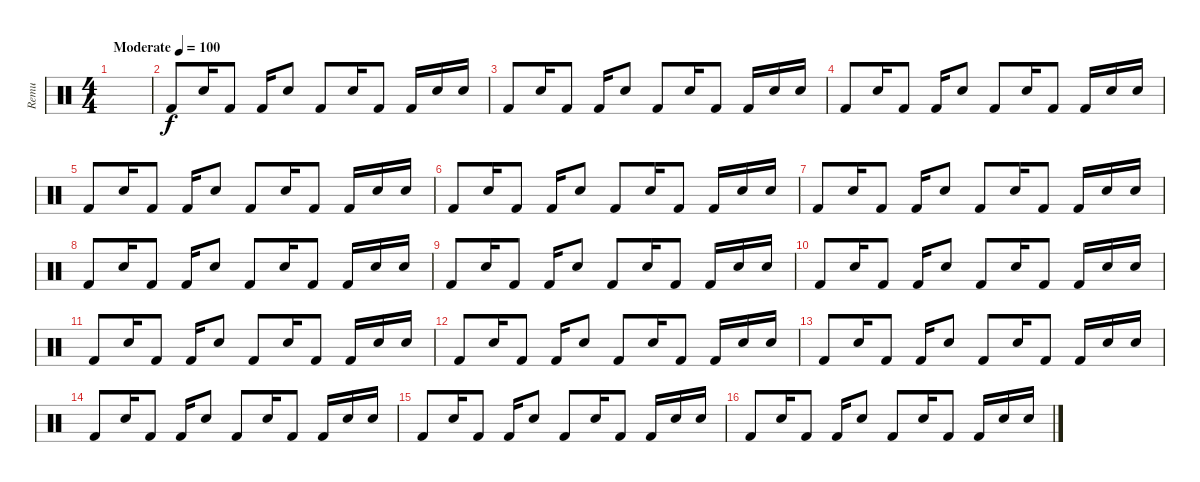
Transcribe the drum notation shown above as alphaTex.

\track ("Remu" "Remu") {instrument percussion}
\staff {score}
\articulation defaults
\ts (4 4)
\tempo (100 "Moderate")
\clef neutral
\ks c
|
"Kick (hit) 2".8 "Snare (hit) 2".16 "Kick (hit) 2".8 "Kick (hit) 2".16 "Snare (hit) 2".8 "Kick (hit) 2".8 "Snare (hit) 2".16 "Kick (hit) 2".8 "Kick (hit) 2".16 "Snare (hit) 2".16 "Snare (hit) 2".16 |
"Kick (hit) 2".8 "Snare (hit) 2".16 "Kick (hit) 2".8 "Kick (hit) 2".16 "Snare (hit) 2".8 "Kick (hit) 2".8 "Snare (hit) 2".16 "Kick (hit) 2".8 "Kick (hit) 2".16 "Snare (hit) 2".16 "Snare (hit) 2".16 |
"Kick (hit) 2".8 "Snare (hit) 2".16 "Kick (hit) 2".8 "Kick (hit) 2".16 "Snare (hit) 2".8 "Kick (hit) 2".8 "Snare (hit) 2".16 "Kick (hit) 2".8 "Kick (hit) 2".16 "Snare (hit) 2".16 "Snare (hit) 2".16 |
"Kick (hit) 2".8 "Snare (hit) 2".16 "Kick (hit) 2".8 "Kick (hit) 2".16 "Snare (hit) 2".8 "Kick (hit) 2".8 "Snare (hit) 2".16 "Kick (hit) 2".8 "Kick (hit) 2".16 "Snare (hit) 2".16 "Snare (hit) 2".16 |
"Kick (hit) 2".8 "Snare (hit) 2".16 "Kick (hit) 2".8 "Kick (hit) 2".16 "Snare (hit) 2".8 "Kick (hit) 2".8 "Snare (hit) 2".16 "Kick (hit) 2".8 "Kick (hit) 2".16 "Snare (hit) 2".16 "Snare (hit) 2".16 |
"Kick (hit) 2".8 "Snare (hit) 2".16 "Kick (hit) 2".8 "Kick (hit) 2".16 "Snare (hit) 2".8 "Kick (hit) 2".8 "Snare (hit) 2".16 "Kick (hit) 2".8 "Kick (hit) 2".16 "Snare (hit) 2".16 "Snare (hit) 2".16 |
"Kick (hit) 2".8 "Snare (hit) 2".16 "Kick (hit) 2".8 "Kick (hit) 2".16 "Snare (hit) 2".8 "Kick (hit) 2".8 "Snare (hit) 2".16 "Kick (hit) 2".8 "Kick (hit) 2".16 "Snare (hit) 2".16 "Snare (hit) 2".16 |
"Kick (hit) 2".8 "Snare (hit) 2".16 "Kick (hit) 2".8 "Kick (hit) 2".16 "Snare (hit) 2".8 "Kick (hit) 2".8 "Snare (hit) 2".16 "Kick (hit) 2".8 "Kick (hit) 2".16 "Snare (hit) 2".16 "Snare (hit) 2".16 |
"Kick (hit) 2".8 "Snare (hit) 2".16 "Kick (hit) 2".8 "Kick (hit) 2".16 "Snare (hit) 2".8 "Kick (hit) 2".8 "Snare (hit) 2".16 "Kick (hit) 2".8 "Kick (hit) 2".16 "Snare (hit) 2".16 "Snare (hit) 2".16 |
"Kick (hit) 2".8 "Snare (hit) 2".16 "Kick (hit) 2".8 "Kick (hit) 2".16 "Snare (hit) 2".8 "Kick (hit) 2".8 "Snare (hit) 2".16 "Kick (hit) 2".8 "Kick (hit) 2".16 "Snare (hit) 2".16 "Snare (hit) 2".16 |
"Kick (hit) 2".8 "Snare (hit) 2".16 "Kick (hit) 2".8 "Kick (hit) 2".16 "Snare (hit) 2".8 "Kick (hit) 2".8 "Snare (hit) 2".16 "Kick (hit) 2".8 "Kick (hit) 2".16 "Snare (hit) 2".16 "Snare (hit) 2".16 |
"Kick (hit) 2".8 "Snare (hit) 2".16 "Kick (hit) 2".8 "Kick (hit) 2".16 "Snare (hit) 2".8 "Kick (hit) 2".8 "Snare (hit) 2".16 "Kick (hit) 2".8 "Kick (hit) 2".16 "Snare (hit) 2".16 "Snare (hit) 2".16 |
"Kick (hit) 2".8 "Snare (hit) 2".16 "Kick (hit) 2".8 "Kick (hit) 2".16 "Snare (hit) 2".8 "Kick (hit) 2".8 "Snare (hit) 2".16 "Kick (hit) 2".8 "Kick (hit) 2".16 "Snare (hit) 2".16 "Snare (hit) 2".16 |
"Kick (hit) 2".8 "Snare (hit) 2".16 "Kick (hit) 2".8 "Kick (hit) 2".16 "Snare (hit) 2".8 "Kick (hit) 2".8 "Snare (hit) 2".16 "Kick (hit) 2".8 "Kick (hit) 2".16 "Snare (hit) 2".16 "Snare (hit) 2".16 |
"Kick (hit) 2".8 "Snare (hit) 2".16 "Kick (hit) 2".8 "Kick (hit) 2".16 "Snare (hit) 2".8 "Kick (hit) 2".8 "Snare (hit) 2".16 "Kick (hit) 2".8 "Kick (hit) 2".16 "Snare (hit) 2".16 "Snare (hit) 2".16
